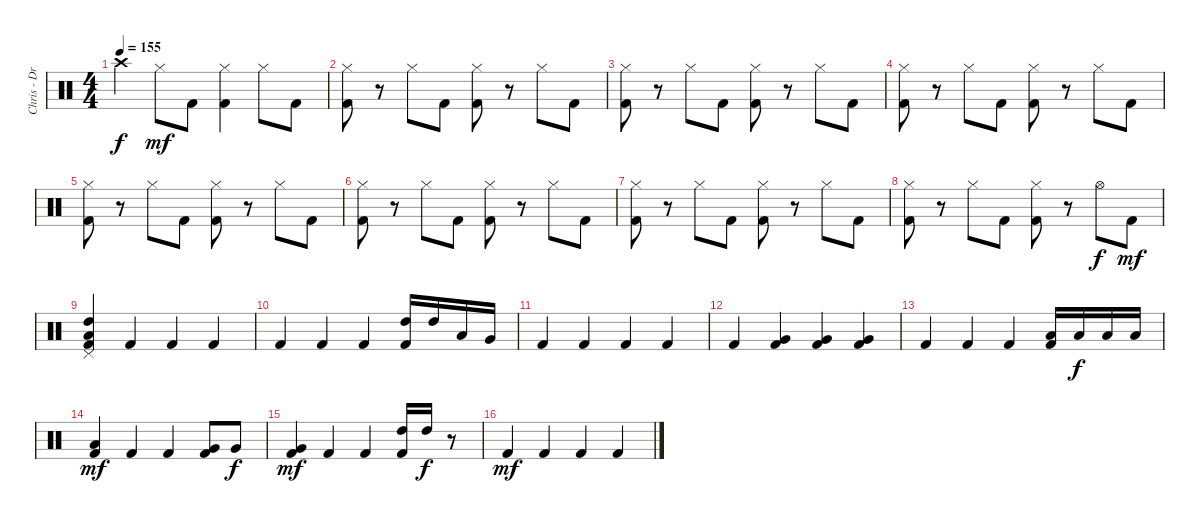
\track ("Chris - Drums" "Chris - Dr") {instrument percussion}
\staff {score}
\articulation defaults
\ts (4 4)
\tempo 155
\clef neutral
\ks c "Crash high (hit)".4{dy f} "Hi-Hat (closed)".8{dy mf} "Kick (hit) 2".8
("Hi-Hat (closed)" "Kick (hit) 2").4 "Hi-Hat (closed)".8 "Kick (hit) 2".8 |
("Hi-Hat (closed)" "Kick (hit) 2").8 r.8 "Hi-Hat (closed)".8 "Kick (hit) 2".8 ("Hi-Hat (closed)" "Kick (hit) 2").8 r.8 "Hi-Hat (closed)".8 "Kick (hit) 2".8 |
("Hi-Hat (closed)" "Kick (hit) 2").8 r.8 "Hi-Hat (closed)".8 "Kick (hit) 2".8 ("Hi-Hat (closed)" "Kick (hit) 2").8 r.8 "Hi-Hat (closed)".8 "Kick (hit) 2".8 |
("Hi-Hat (closed)" "Kick (hit) 2").8 r.8 "Hi-Hat (closed)".8 "Kick (hit) 2".8 ("Hi-Hat (closed)" "Kick (hit) 2").8 r.8 "Hi-Hat (closed)".8 "Kick (hit) 2".8 |
("Hi-Hat (closed)" "Kick (hit) 2").8 r.8 "Hi-Hat (closed)".8 "Kick (hit) 2".8 ("Hi-Hat (closed)" "Kick (hit) 2").8 r.8 "Hi-Hat (closed)".8 "Kick (hit) 2".8 |
("Hi-Hat (closed)" "Kick (hit) 2").8 r.8 "Hi-Hat (closed)".8 "Kick (hit) 2".8 ("Hi-Hat (closed)" "Kick (hit) 2").8 r.8 "Hi-Hat (closed)".8 "Kick (hit) 2".8 |
("Hi-Hat (closed)" "Kick (hit) 2").8 r.8 "Hi-Hat (closed)".8 "Kick (hit) 2".8 ("Hi-Hat (closed)" "Kick (hit) 2").8 r.8 "Hi-Hat (closed)".8 "Kick (hit) 2".8 |
("Hi-Hat (closed)" "Kick (hit) 2").8 r.8 "Hi-Hat (closed)".8 "Kick (hit) 2".8 ("Hi-Hat (closed)" "Kick (hit) 2").8 r.8 "Hi-Hat (open)".8{dy f} "Kick (hit) 2".8{dy mf} |
("Pedal Hi-Hat (hit)" "High Tom (hit)" "Low Tom (hit)" "Kick (hit) 2").4 "Kick (hit) 2".4 "Kick (hit) 2".4 "Kick (hit) 2".4 |
"Kick (hit) 2".4 "Kick (hit) 2".4 "Kick (hit) 2".4 ("High Tom (hit)" "Kick (hit) 2").16 "High Tom (hit)".16 "Low Tom (hit)".16 "Very Low Tom (hit)".16 |
"Kick (hit) 2".4 "Kick (hit) 2".4 "Kick (hit) 2".4 "Kick (hit) 2".4 |
"Kick (hit) 2".4 ("Very Low Tom (hit)" "Kick (hit) 2").4 ("Very Low Tom (hit)" "Kick (hit) 2").4 ("Very Low Tom (hit)" "Kick (hit) 2").4 |
"Kick (hit) 2".4 "Kick (hit) 2".4 "Kick (hit) 2".4 ("Low Tom (hit)" "Kick (hit) 2").16 "Low Tom (hit)".16{dy f} "Low Tom (hit)".16 "Low Tom (hit)".16 |
("Low Tom (hit)" "Kick (hit) 2").4{dy mf} "Kick (hit) 2".4 "Kick (hit) 2".4 ("Very Low Tom (hit)" "Kick (hit) 2").8 "Very Low Tom (hit)".8{dy f} |
("Very Low Tom (hit)" "Kick (hit) 2").4{dy mf} "Kick (hit) 2".4 "Kick (hit) 2".4 ("High Tom (hit)" "Kick (hit) 2").16 "High Tom (hit)".16{dy f} r.8 |
"Kick (hit) 2".4{dy mf} "Kick (hit) 2".4 "Kick (hit) 2".4 "Kick (hit) 2".4
